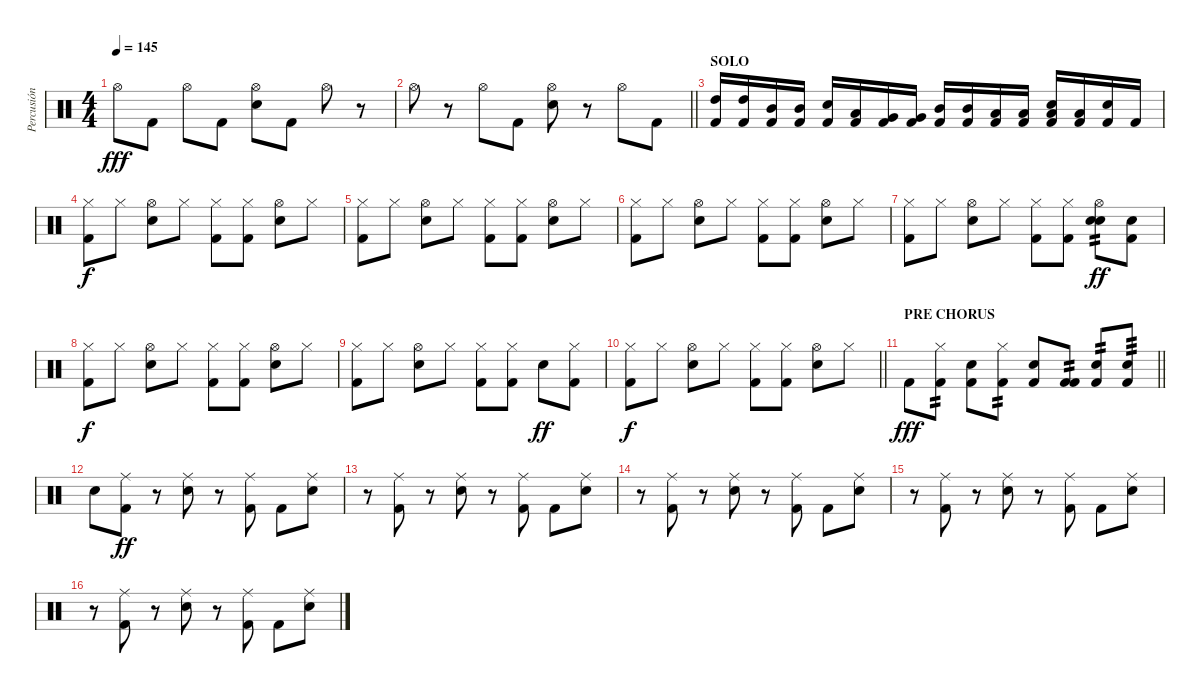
\track ("Percusión" "Percusión") {instrument percussion}
\staff {score}
\articulation defaults
\ts (4 4)
\tempo 145
\clef neutral
\ks c "Hi-Hat (open)".8{dy fff} "Kick (hit) 2".8 "Hi-Hat (open)".8 "Kick (hit) 2".8
("Snare (hit) 2" "Hi-Hat (open)").8 "Kick (hit) 2".8 "Hi-Hat (open)".8 r.8 |
\barLineRight lightlight "Hi-Hat (open)".8
r.8 "Hi-Hat (open)".8 "Kick (hit) 2".8 ("Snare (hit) 2" "Hi-Hat (open)").8 r.8 "Hi-Hat (open)".8 "Kick (hit) 2".8 |
\section ("" "SOLO")
("High Tom (hit)" "Kick (hit) 2").16 ("High Tom (hit)" "Kick (hit) 2").16 ("Mid Tom (hit)" "Kick (hit) 2").16 ("Mid Tom (hit)" "Kick (hit) 2").16 ("Snare (hit) 2" "Kick (hit) 2").16 ("Low Tom (hit)" "Kick (hit) 2").16 ("Very Low Tom (hit)" "Kick (hit) 2").16 ("Very Low Tom (hit)" "Kick (hit) 2").16 ("Mid Tom (hit)" "Kick (hit) 2").16 ("Mid Tom (hit)" "Kick (hit) 2").16 ("Low Tom (hit)" "Kick (hit) 2").16 ("Low Tom (hit)" "Kick (hit) 2").16 ("Snare (hit) 2" "Low Floor Tom (hit)" "Kick (hit) 2").16 ("Low Floor Tom (hit)" "Kick (hit) 2").16 ("Snare (hit) 2" "Kick (hit) 2").16 "Kick (hit) 2".16 |
("Hi-Hat (closed)" "Kick (hit) 2").8{dy f} "Hi-Hat (closed)".8 ("Snare (hit) 2" "Hi-Hat (open)").8 "Hi-Hat (closed)".8 ("Hi-Hat (closed)" "Kick (hit) 2").8 ("Hi-Hat (closed)" "Kick (hit) 2").8 ("Snare (hit) 2" "Hi-Hat (open)").8 "Hi-Hat (closed)".8 |
("Hi-Hat (closed)" "Kick (hit) 2").8 "Hi-Hat (closed)".8 ("Snare (hit) 2" "Hi-Hat (open)").8 "Hi-Hat (closed)".8 ("Hi-Hat (closed)" "Kick (hit) 2").8 ("Hi-Hat (closed)" "Kick (hit) 2").8 ("Snare (hit) 2" "Hi-Hat (open)").8 "Hi-Hat (closed)".8 |
("Hi-Hat (closed)" "Kick (hit) 2").8 "Hi-Hat (closed)".8 ("Snare (hit) 2" "Hi-Hat (open)").8 "Hi-Hat (closed)".8 ("Hi-Hat (closed)" "Kick (hit) 2").8 ("Hi-Hat (closed)" "Kick (hit) 2").8 ("Snare (hit) 2" "Hi-Hat (open)").8 "Hi-Hat (closed)".8 |
("Hi-Hat (closed)" "Kick (hit) 2").8 "Hi-Hat (closed)".8 ("Snare (hit) 2" "Hi-Hat (open)").8 "Hi-Hat (closed)".8 ("Hi-Hat (closed)" "Kick (hit) 2").8 ("Hi-Hat (closed)" "Kick (hit) 2").8 ("Snare (hit) 2" "Snare (hit) 2" "Hi-Hat (open)").8{tp 2 dy ff} ("Snare (hit) 2" "Kick (hit) 2").8 |
("Hi-Hat (closed)" "Kick (hit) 2").8{dy f} "Hi-Hat (closed)".8 ("Snare (hit) 2" "Hi-Hat (open)").8 "Hi-Hat (closed)".8 ("Hi-Hat (closed)" "Kick (hit) 2").8 ("Hi-Hat (closed)" "Kick (hit) 2").8 ("Snare (hit) 2" "Hi-Hat (open)").8 "Hi-Hat (closed)".8 |
("Hi-Hat (closed)" "Kick (hit) 2").8 "Hi-Hat (closed)".8 ("Snare (hit) 2" "Hi-Hat (open)").8 "Hi-Hat (closed)".8 ("Hi-Hat (closed)" "Kick (hit) 2").8 ("Hi-Hat (closed)" "Kick (hit) 2").8 "Snare (hit) 2".8{dy ff} ("Hi-Hat (closed)" "Kick (hit) 2").8 |
\barLineRight lightlight
("Hi-Hat (closed)" "Kick (hit) 2").8{dy f} "Hi-Hat (closed)".8 ("Snare (hit) 2" "Hi-Hat (open)").8 "Hi-Hat (closed)".8 ("Hi-Hat (closed)" "Kick (hit) 2").8 ("Hi-Hat (closed)" "Kick (hit) 2").8 ("Snare (hit) 2" "Hi-Hat (open)").8 "Hi-Hat (closed)".8 |
\section ("" "PRE CHORUS")
\barLineRight lightlight "Kick (hit) 2".8{dy fff}
("Hi-Hat (closed)" "Kick (hit) 2").8{tp 2} ("Snare (hit) 2" "Kick (hit) 2").8 ("Hi-Hat (closed)" "Kick (hit) 2").8{tp 2} ("Snare (hit) 2" "Kick (hit) 2").8 ("Kick (hit) 2" "Kick (hit) 2").8{tp 2} ("Snare (hit) 2" "Kick (hit) 2").8{tp 2} ("Snare (hit) 2" "Kick (hit) 2").8{tp 3} |
"Snare (hit) 2".8 ("Ride (middle)" "Kick (hit) 2").8{dy ff} r.8 ("Ride (middle)" "Snare (hit) 2").8 r.8 ("Ride (middle)" "Kick (hit) 2").8 "Kick (hit) 2".8 ("Ride (middle)" "Snare (hit) 2").8 |
r.8 ("Ride (middle)" "Kick (hit) 2").8 r.8 ("Ride (middle)" "Snare (hit) 2").8 r.8 ("Ride (middle)" "Kick (hit) 2").8 "Kick (hit) 2".8 ("Ride (middle)" "Snare (hit) 2").8 |
r.8 ("Ride (middle)" "Kick (hit) 2").8 r.8 ("Ride (middle)" "Snare (hit) 2").8 r.8 ("Ride (middle)" "Kick (hit) 2").8 "Kick (hit) 2".8 ("Ride (middle)" "Snare (hit) 2").8 |
r.8 ("Ride (middle)" "Kick (hit) 2").8 r.8 ("Ride (middle)" "Snare (hit) 2").8 r.8 ("Ride (middle)" "Kick (hit) 2").8 "Kick (hit) 2".8 ("Ride (middle)" "Snare (hit) 2").8 |
r.8 ("Ride (middle)" "Kick (hit) 2").8 r.8 ("Ride (middle)" "Snare (hit) 2").8 r.8 ("Ride (middle)" "Kick (hit) 2").8 "Kick (hit) 2".8 ("Ride (middle)" "Snare (hit) 2").8
